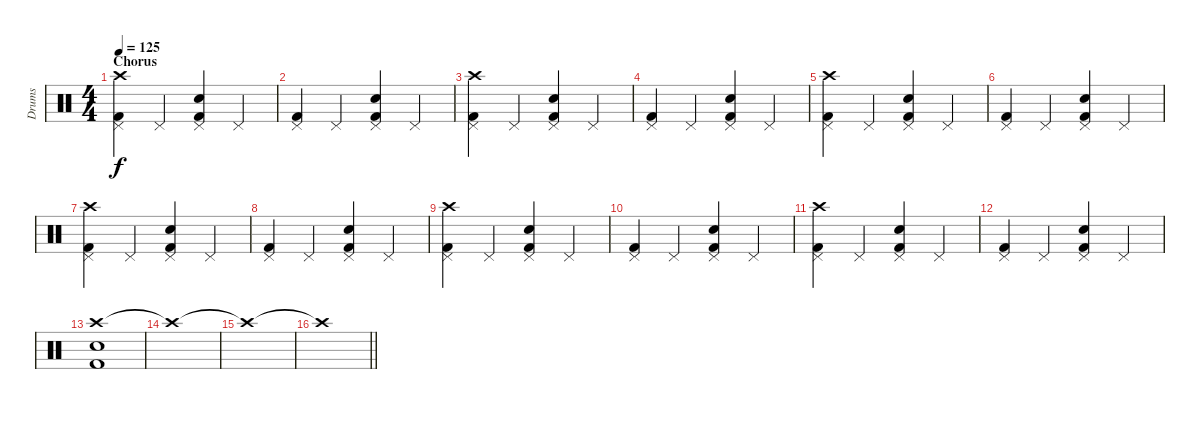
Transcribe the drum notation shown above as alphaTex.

\track ("Drums" "Drums") {instrument percussion}
\staff {score}
\articulation defaults
\ts (4 4)
\section ("" "Chorus")
\tempo 125
\clef neutral
\ks c
("Crash high (hit)" "Pedal Hi-Hat (hit)" "Kick (hit) 2").4{dy f} "Pedal Hi-Hat (hit)".4 ("Pedal Hi-Hat (hit)" "Electric Snare (hit)" "Kick (hit) 2").4 "Pedal Hi-Hat (hit)".4 |
("Pedal Hi-Hat (hit)" "Kick (hit) 2").4 "Pedal Hi-Hat (hit)".4 ("Pedal Hi-Hat (hit)" "Electric Snare (hit)" "Kick (hit) 2").4 "Pedal Hi-Hat (hit)".4 |
("Crash high (hit)" "Pedal Hi-Hat (hit)" "Kick (hit) 2").4 "Pedal Hi-Hat (hit)".4 ("Pedal Hi-Hat (hit)" "Electric Snare (hit)" "Kick (hit) 2").4 "Pedal Hi-Hat (hit)".4 |
("Pedal Hi-Hat (hit)" "Kick (hit) 2").4 "Pedal Hi-Hat (hit)".4 ("Pedal Hi-Hat (hit)" "Electric Snare (hit)" "Kick (hit) 2").4 "Pedal Hi-Hat (hit)".4 |
("Crash high (hit)" "Pedal Hi-Hat (hit)" "Kick (hit) 2").4 "Pedal Hi-Hat (hit)".4 ("Pedal Hi-Hat (hit)" "Electric Snare (hit)" "Kick (hit) 2").4 "Pedal Hi-Hat (hit)".4 |
("Pedal Hi-Hat (hit)" "Kick (hit) 2").4 "Pedal Hi-Hat (hit)".4 ("Pedal Hi-Hat (hit)" "Electric Snare (hit)" "Kick (hit) 2").4 "Pedal Hi-Hat (hit)".4 |
("Crash high (hit)" "Pedal Hi-Hat (hit)" "Kick (hit) 2").4 "Pedal Hi-Hat (hit)".4 ("Pedal Hi-Hat (hit)" "Electric Snare (hit)" "Kick (hit) 2").4 "Pedal Hi-Hat (hit)".4 |
("Pedal Hi-Hat (hit)" "Kick (hit) 2").4 "Pedal Hi-Hat (hit)".4 ("Pedal Hi-Hat (hit)" "Electric Snare (hit)" "Kick (hit) 2").4 "Pedal Hi-Hat (hit)".4 |
("Crash high (hit)" "Pedal Hi-Hat (hit)" "Kick (hit) 2").4 "Pedal Hi-Hat (hit)".4 ("Pedal Hi-Hat (hit)" "Electric Snare (hit)" "Kick (hit) 2").4 "Pedal Hi-Hat (hit)".4 |
("Pedal Hi-Hat (hit)" "Kick (hit) 2").4 "Pedal Hi-Hat (hit)".4 ("Pedal Hi-Hat (hit)" "Electric Snare (hit)" "Kick (hit) 2").4 "Pedal Hi-Hat (hit)".4 |
("Crash high (hit)" "Pedal Hi-Hat (hit)" "Kick (hit) 2").4 "Pedal Hi-Hat (hit)".4 ("Pedal Hi-Hat (hit)" "Electric Snare (hit)" "Kick (hit) 2").4 "Pedal Hi-Hat (hit)".4 |
("Pedal Hi-Hat (hit)" "Kick (hit) 2").4 "Pedal Hi-Hat (hit)".4 ("Pedal Hi-Hat (hit)" "Electric Snare (hit)" "Kick (hit) 2").4 "Pedal Hi-Hat (hit)".4 |
("Crash high (hit)" "Electric Snare (hit)" "Kick (hit) 2").1 |
"Crash high (hit)"{t}.1 |
"Crash high (hit)"{t}.1 |
\barLineRight lightlight "Crash high (hit)"{t}.1
